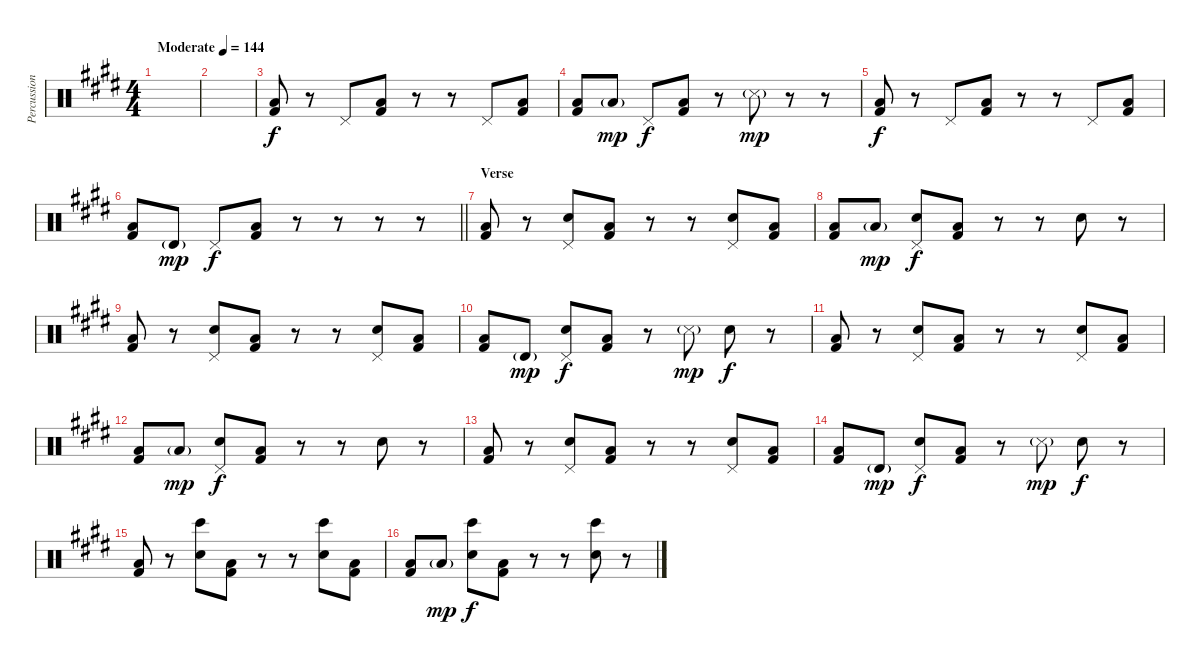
\track ("Percussion" "Percussion") {instrument percussion}
\staff {score}
\articulation defaults
\ts (4 4)
\tempo (144 "Moderate")
\clef neutral
\ks e
|
|
("Low Floor Tom (hit)" "Kick (hit) 2").8 r.8 "Pedal Hi-Hat (hit)".8 ("Low Floor Tom (hit)" "Kick (hit) 2").8 r.8 r.8 "Pedal Hi-Hat (hit)".8 ("Low Floor Tom (hit)" "Kick (hit) 2").8 |
("Low Floor Tom (hit)" "Kick (hit) 2").8 "Low Tom (hit)"{g}.8{dy mp} "Pedal Hi-Hat (hit)".8{dy f} ("Low Floor Tom (hit)" "Kick (hit) 2").8 r.8 "Snare (side stick) 3"{g}.8{dy mp} r.8 r.8 |
("Low Floor Tom (hit)" "Kick (hit) 2").8{dy f} r.8 "Pedal Hi-Hat (hit)".8 ("Low Floor Tom (hit)" "Kick (hit) 2").8 r.8 r.8 "Pedal Hi-Hat (hit)".8 ("Low Floor Tom (hit)" "Kick (hit) 2").8 |
\barLineRight lightlight
("Low Floor Tom (hit)" "Kick (hit) 2").8 "Timbale high (hit)"{g}.8{dy mp} "Pedal Hi-Hat (hit)".8{dy f} ("Low Floor Tom (hit)" "Kick (hit) 2").8 r.8 r.8 r.8 r.8 |
\section ("" "Verse")
("Low Floor Tom (hit)" "Kick (hit) 2").8 r.8 ("Pedal Hi-Hat (hit)" "Hand Clap (hit)").8 ("Low Floor Tom (hit)" "Kick (hit) 2").8 r.8 r.8 ("Pedal Hi-Hat (hit)" "Hand Clap (hit)").8 ("Low Floor Tom (hit)" "Kick (hit) 2").8 |
("Low Floor Tom (hit)" "Kick (hit) 2").8 "Low Tom (hit)"{g}.8{dy mp} ("Pedal Hi-Hat (hit)" "Hand Clap (hit)").8{dy f} ("Low Floor Tom (hit)" "Kick (hit) 2").8 r.8 r.8 "Hand Clap (hit)".8 r.8 |
("Low Floor Tom (hit)" "Kick (hit) 2").8 r.8 ("Pedal Hi-Hat (hit)" "Hand Clap (hit)").8 ("Low Floor Tom (hit)" "Kick (hit) 2").8 r.8 r.8 ("Pedal Hi-Hat (hit)" "Hand Clap (hit)").8 ("Low Floor Tom (hit)" "Kick (hit) 2").8 |
("Low Floor Tom (hit)" "Kick (hit) 2").8 "Timbale high (hit)"{g}.8{dy mp} ("Pedal Hi-Hat (hit)" "Hand Clap (hit)").8{dy f} ("Low Floor Tom (hit)" "Kick (hit) 2").8 r.8 "Snare (side stick) 3"{g}.8{dy mp} "Hand Clap (hit)".8{dy f} r.8 |
("Low Floor Tom (hit)" "Kick (hit) 2").8 r.8 ("Pedal Hi-Hat (hit)" "Hand Clap (hit)").8 ("Low Floor Tom (hit)" "Kick (hit) 2").8 r.8 r.8 ("Pedal Hi-Hat (hit)" "Hand Clap (hit)").8 ("Low Floor Tom (hit)" "Kick (hit) 2").8 |
("Low Floor Tom (hit)" "Kick (hit) 2").8 "Low Tom (hit)"{g}.8{dy mp} ("Pedal Hi-Hat (hit)" "Hand Clap (hit)").8{dy f} ("Low Floor Tom (hit)" "Kick (hit) 2").8 r.8 r.8 "Hand Clap (hit)".8 r.8 |
("Low Floor Tom (hit)" "Kick (hit) 2").8 r.8 ("Pedal Hi-Hat (hit)" "Hand Clap (hit)").8 ("Low Floor Tom (hit)" "Kick (hit) 2").8 r.8 r.8 ("Pedal Hi-Hat (hit)" "Hand Clap (hit)").8 ("Low Floor Tom (hit)" "Kick (hit) 2").8 |
("Low Floor Tom (hit)" "Kick (hit) 2").8 "Timbale high (hit)"{g}.8{dy mp} ("Pedal Hi-Hat (hit)" "Hand Clap (hit)").8{dy f} ("Low Floor Tom (hit)" "Kick (hit) 2").8 r.8 "Snare (side stick) 3"{g}.8{dy mp} "Hand Clap (hit)".8{dy f} r.8 |
("Low Floor Tom (hit)" "Kick (hit) 2").8 r.8 ("Bongo High (hit)" "Hand Clap (hit)").8 ("Low Floor Tom (hit)" "Kick (hit) 2").8 r.8 r.8 ("Bongo High (hit)" "Hand Clap (hit)").8 ("Low Floor Tom (hit)" "Kick (hit) 2").8 |
("Low Floor Tom (hit)" "Kick (hit) 2").8 "Low Tom (hit)"{g}.8{dy mp} ("Bongo High (hit)" "Hand Clap (hit)").8{dy f} ("Low Floor Tom (hit)" "Kick (hit) 2").8 r.8 r.8 ("Bongo High (hit)" "Hand Clap (hit)").8 r.8
